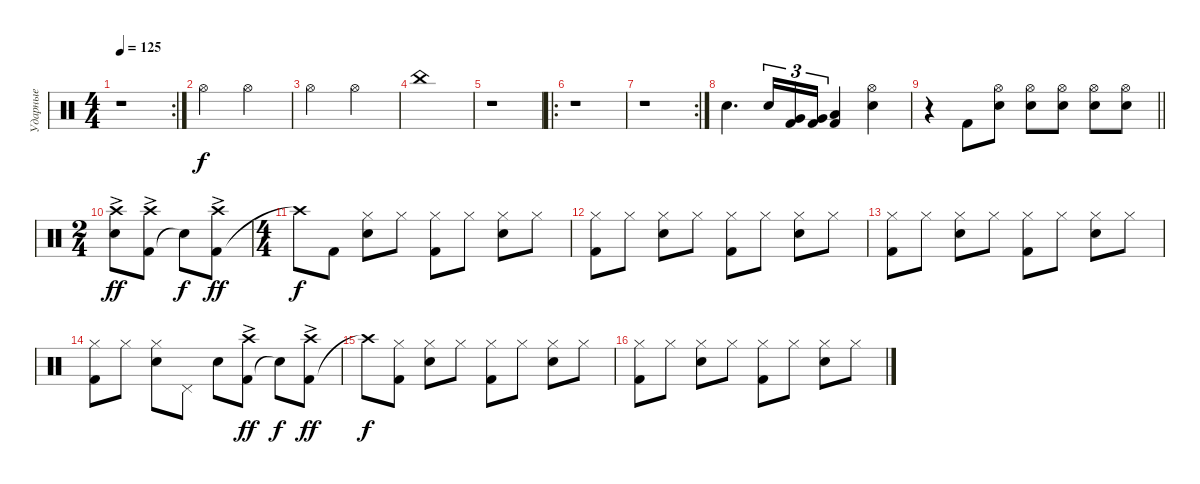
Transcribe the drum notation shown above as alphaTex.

\track ("Ударные" "Ударные") {instrument percussion}
\staff
\articulation defaults
\rc 2
\ts (4 4)
\tempo 125
\clef neutral
\ks c
r.1{dy mp} |
"Hi-Hat (open)".2{dy f} "Hi-Hat (open)".2 |
"Hi-Hat (open)".2 "Hi-Hat (open)".2 |
"China (hit)".1 |
r.1 |
\ro
r.1 |
\rc 2
r.1 |
"Snare (hit) 2".4{d} "Snare (hit) 2".16{tu (3 2)} ("Kick (hit) 2" "Very Low Tom (hit)").16{tu (3 2)} ("Kick (hit) 2" "Very Low Tom (hit)").16{tu (3 2)} ("Kick (hit) 2" "Low Floor Tom (hit)").4 ("Snare (hit) 2" "Hi-Hat (open)").4 |
\barLineRight lightlight
r.4 "Kick (hit) 2".8 ("Snare (hit) 2" "Hi-Hat (open)").8 ("Snare (hit) 2" "Hi-Hat (open)").8 ("Snare (hit) 2" "Hi-Hat (open)").8 ("Snare (hit) 2" "Hi-Hat (open)").8 ("Snare (hit) 2" "Hi-Hat (open)").8 |
\ts (2 4)
("Snare (hit) 2" "Crash high (hit)"{ac}).8{dy ff} ("Kick (hit) 2" "Crash high (hit)"{ac}).8 "Snare (hit)"{t}.8{dy f} ("Kick (hit) 2" "Crash high (hit)"{ac}).8{dy ff} |
\ts (4 4)
"Crash high (hit)"{t}.8{dy f} "Kick (hit) 2".8 ("Snare (hit) 2" "Hi-Hat (closed)").8 "Hi-Hat (closed)".8 ("Kick (hit) 2" "Hi-Hat (closed)").8 "Hi-Hat (closed)".8 ("Snare (hit) 2" "Hi-Hat (closed)").8 "Hi-Hat (closed)".8 |
("Kick (hit) 2" "Hi-Hat (closed)").8 "Hi-Hat (closed)".8 ("Snare (hit) 2" "Hi-Hat (closed)").8 "Hi-Hat (closed)".8 ("Kick (hit) 2" "Hi-Hat (closed)").8 "Hi-Hat (closed)".8 ("Snare (hit) 2" "Hi-Hat (closed)").8 "Hi-Hat (closed)".8 |
("Kick (hit) 2" "Hi-Hat (closed)").8 "Hi-Hat (closed)".8 ("Snare (hit) 2" "Hi-Hat (closed)").8 "Hi-Hat (closed)".8 ("Kick (hit) 2" "Hi-Hat (closed)").8 "Hi-Hat (closed)".8 ("Snare (hit) 2" "Hi-Hat (closed)").8 "Hi-Hat (closed)".8 |
("Kick (hit) 2" "Hi-Hat (closed)").8 "Hi-Hat (closed)".8 ("Snare (hit) 2" "Hi-Hat (closed)").8 "Pedal Hi-Hat (hit)".8 "Snare (hit) 2".8 ("Kick (hit) 2" "Crash high (hit)"{ac}).8{dy ff} "Snare (hit)"{t}.8{dy f} ("Kick (hit) 2" "Crash high (hit)"{ac}).8{dy ff} |
"Crash high (hit)"{t}.8{dy f} ("Kick (hit) 2" "Hi-Hat (closed)").8 ("Snare (hit) 2" "Hi-Hat (closed)").8 "Hi-Hat (closed)".8 ("Kick (hit) 2" "Hi-Hat (closed)").8 "Hi-Hat (closed)".8 ("Snare (hit) 2" "Hi-Hat (closed)").8 "Hi-Hat (closed)".8 |
("Kick (hit) 2" "Hi-Hat (closed)").8 "Hi-Hat (closed)".8 ("Snare (hit) 2" "Hi-Hat (closed)").8 "Hi-Hat (closed)".8 ("Kick (hit) 2" "Hi-Hat (closed)").8 "Hi-Hat (closed)".8 ("Snare (hit) 2" "Hi-Hat (closed)").8 "Hi-Hat (closed)".8
